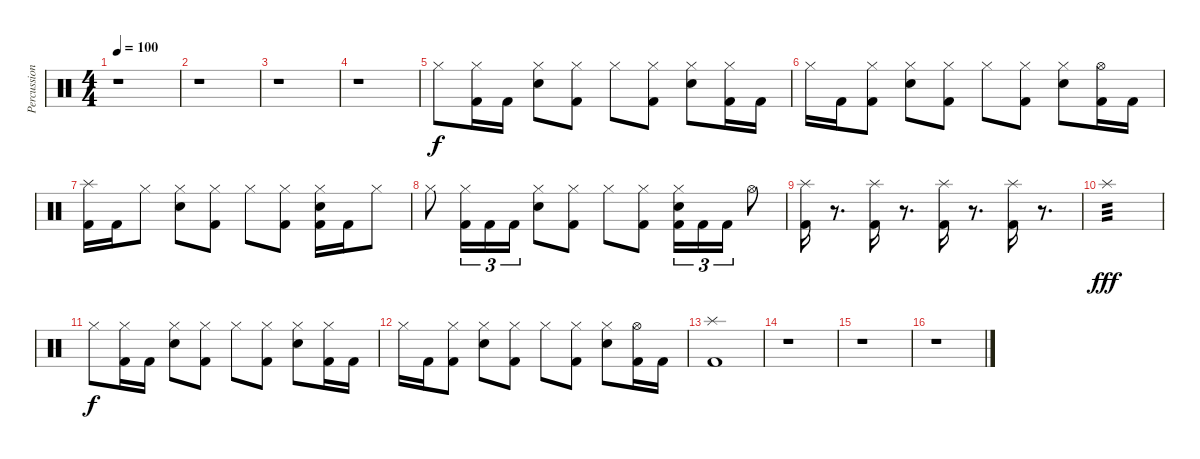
\track ("Percussion" "Percussion") {instrument percussion}
\staff {score}
\articulation defaults
\ts (4 4)
\tempo 100
\clef neutral
\ks c
r.1{dy f} |
r.1 |
r.1 |
r.1 |
"Hi-Hat (closed)".8 ("Hi-Hat (closed)" "Kick (hit) 2").16 "Kick (hit) 2".16 ("Hi-Hat (closed)" "Electric Snare (hit)").8 ("Hi-Hat (closed)" "Kick (hit) 2").8 "Hi-Hat (closed)".8 ("Hi-Hat (closed)" "Kick (hit) 2").8 ("Hi-Hat (closed)" "Electric Snare (hit)").8 ("Hi-Hat (closed)" "Kick (hit) 2").16 "Kick (hit) 2".16 |
"Hi-Hat (closed)".16 "Kick (hit) 2".16 ("Hi-Hat (closed)" "Kick (hit) 2").8 ("Hi-Hat (closed)" "Electric Snare (hit)").8 ("Hi-Hat (closed)" "Kick (hit) 2").8 "Hi-Hat (closed)".8 ("Hi-Hat (closed)" "Kick (hit) 2").8 ("Hi-Hat (closed)" "Electric Snare (hit)").8 ("Hi-Hat (open)" "Kick (hit) 2").16 "Kick (hit) 2".16 |
("Splash (hit)" "Kick (hit) 2").16 "Kick (hit) 2".16 "Hi-Hat (closed)".8 ("Hi-Hat (closed)" "Electric Snare (hit)").8 ("Hi-Hat (closed)" "Kick (hit) 2").8 "Hi-Hat (closed)".8 ("Hi-Hat (closed)" "Kick (hit) 2").8 ("Hi-Hat (closed)" "Electric Snare (hit)" "Kick (hit) 2").16 "Kick (hit) 2".16 "Hi-Hat (closed)".8 |
"Hi-Hat (closed)".8 ("Hi-Hat (closed)" "Kick (hit) 2").16{tu (3 2)} "Kick (hit) 2".16{tu (3 2)} "Kick (hit) 2".16{tu (3 2)} ("Hi-Hat (closed)" "Electric Snare (hit)").8 ("Hi-Hat (closed)" "Kick (hit) 2").8 "Hi-Hat (closed)".8 ("Hi-Hat (closed)" "Kick (hit) 2").8 ("Hi-Hat (closed)" "Electric Snare (hit)" "Kick (hit) 2").16{tu (3 2)} "Kick (hit) 2".16{tu (3 2)} "Kick (hit) 2".16{tu (3 2)} "Hi-Hat (open)".8 |
("Splash (hit)" "Kick (hit) 2").16 r.8{d volume 0} ("Splash (hit)" "Kick (hit) 2").16{volume 13} r.8{d volume 0} ("Splash (hit)" "Kick (hit) 2").16{volume 13} r.8{d volume 0} ("Splash (hit)" "Kick (hit) 2").16{volume 13} r.8{d volume 0} |
"Splash (hit)".1{tp 3 dy fff volume 16} |
"Hi-Hat (closed)".8{dy f} ("Hi-Hat (closed)" "Kick (hit) 2").16 "Kick (hit) 2".16 ("Hi-Hat (closed)" "Electric Snare (hit)").8 ("Hi-Hat (closed)" "Kick (hit) 2").8 "Hi-Hat (closed)".8 ("Hi-Hat (closed)" "Kick (hit) 2").8 ("Hi-Hat (closed)" "Electric Snare (hit)").8 ("Hi-Hat (closed)" "Kick (hit) 2").16 "Kick (hit) 2".16 |
"Hi-Hat (closed)".16 "Kick (hit) 2".16 ("Hi-Hat (closed)" "Kick (hit) 2").8 ("Hi-Hat (closed)" "Electric Snare (hit)").8 ("Hi-Hat (closed)" "Kick (hit) 2").8 "Hi-Hat (closed)".8 ("Hi-Hat (closed)" "Kick (hit) 2").8 ("Hi-Hat (closed)" "Electric Snare (hit)").8 ("Hi-Hat (open)" "Kick (hit) 2").16 "Kick (hit) 2".16 |
("Splash (hit)" "Kick (hit) 2").1 |
r.1 |
r.1 |
r.1
